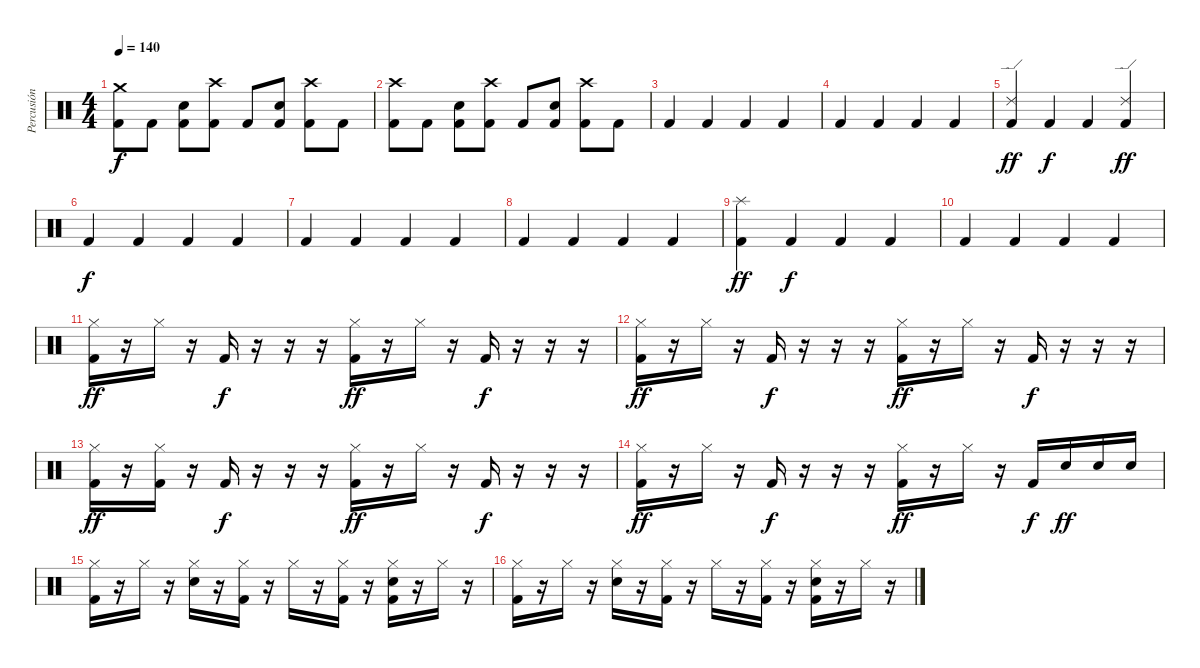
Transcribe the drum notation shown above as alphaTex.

\track ("Percusión" "Percusión") {instrument percussion}
\staff {score}
\articulation defaults
\ts (4 4)
\tempo 140
\clef neutral
\ks c
("Crash medium (hit)" "Kick (hit) 2").8{dy f} "Kick (hit) 2".8 ("Kick (hit) 2" "Snare (hit) 2").8 ("Crash high (hit)" "Kick (hit) 2").8 "Kick (hit) 2".8 ("Kick (hit) 2" "Snare (hit) 2").8 ("Crash high (hit)" "Kick (hit) 2").8 "Kick (hit) 2".8 |
("Crash high (hit)" "Kick (hit) 2").8 "Kick (hit) 2".8 ("Kick (hit) 2" "Snare (hit) 2").8 ("Crash high (hit)" "Kick (hit) 2").8 "Kick (hit) 2".8 ("Kick (hit) 2" "Snare (hit) 2").8 ("Crash high (hit)" "Kick (hit) 2").8 "Kick (hit) 2".8 |
"Kick (hit) 2".4 "Kick (hit) 2".4 "Kick (hit) 2".4 "Kick (hit) 2".4 |
"Kick (hit) 2".4 "Kick (hit) 2".4 "Kick (hit) 2".4 "Kick (hit) 2".4 |
("Ride (edge) 2" "Kick (hit) 2").4{dy ff} "Kick (hit) 2".4{dy f} "Kick (hit) 2".4 ("Ride (edge) 2" "Kick (hit) 2").4{dy ff} |
"Kick (hit) 2".4{dy f} "Kick (hit) 2".4 "Kick (hit) 2".4 "Kick (hit) 2".4 |
"Kick (hit) 2".4 "Kick (hit) 2".4 "Kick (hit) 2".4 "Kick (hit) 2".4 |
"Kick (hit) 2".4 "Kick (hit) 2".4 "Kick (hit) 2".4 "Kick (hit) 2".4 |
("Splash (hit)" "Kick (hit) 2").4{dy ff} "Kick (hit) 2".4{dy f} "Kick (hit) 2".4 "Kick (hit) 2".4 |
"Kick (hit) 2".4 "Kick (hit) 2".4 "Kick (hit) 2".4 "Kick (hit) 2".4 |
("Hi-Hat (closed)" "Kick (hit) 2").16{dy ff} r.16 "Hi-Hat (closed)".16 r.16 "Kick (hit) 2".16{dy f} r.16 r.16 r.16 ("Hi-Hat (closed)" "Kick (hit) 2").16{dy ff} r.16 "Hi-Hat (closed)".16 r.16 "Kick (hit) 2".16{dy f} r.16 r.16 r.16 |
("Hi-Hat (closed)" "Kick (hit) 2").16{dy ff} r.16 "Hi-Hat (closed)".16 r.16 "Kick (hit) 2".16{dy f} r.16 r.16 r.16 ("Hi-Hat (closed)" "Kick (hit) 2").16{dy ff} r.16 "Hi-Hat (closed)".16 r.16 "Kick (hit) 2".16{dy f} r.16 r.16 r.16 |
("Hi-Hat (closed)" "Kick (hit) 2").16{dy ff} r.16 ("Hi-Hat (closed)" "Kick (hit) 2").16 r.16 "Kick (hit) 2".16{dy f} r.16 r.16 r.16 ("Hi-Hat (closed)" "Kick (hit) 2").16{dy ff} r.16 "Hi-Hat (closed)".16 r.16 "Kick (hit) 2".16{dy f} r.16 r.16 r.16 |
("Hi-Hat (closed)" "Kick (hit) 2").16{dy ff} r.16 "Hi-Hat (closed)".16 r.16 "Kick (hit) 2".16{dy f} r.16 r.16 r.16 ("Hi-Hat (closed)" "Kick (hit) 2").16{dy ff} r.16 "Hi-Hat (closed)".16 r.16 "Kick (hit) 2".16{dy f} "Snare (hit) 2".16{dy ff} "Snare (hit) 2".16 "Snare (hit) 2".16 |
("Hi-Hat (closed)" "Kick (hit) 2").16 r.16 "Hi-Hat (closed)".16 r.16 ("Hi-Hat (closed)" "Snare (hit) 2").16 r.16 ("Hi-Hat (closed)" "Kick (hit) 2").16 r.16 "Hi-Hat (closed)".16 r.16 ("Hi-Hat (closed)" "Kick (hit) 2").16 r.16 ("Hi-Hat (closed)" "Snare (hit) 2" "Kick (hit) 2").16 r.16 "Hi-Hat (closed)".16 r.16 |
("Hi-Hat (closed)" "Kick (hit) 2").16 r.16 "Hi-Hat (closed)".16 r.16 ("Hi-Hat (closed)" "Snare (hit) 2").16 r.16 ("Hi-Hat (closed)" "Kick (hit) 2").16 r.16 "Hi-Hat (closed)".16 r.16 ("Hi-Hat (closed)" "Kick (hit) 2").16 r.16 ("Hi-Hat (closed)" "Snare (hit) 2" "Kick (hit) 2").16 r.16 "Hi-Hat (closed)".16 r.16
